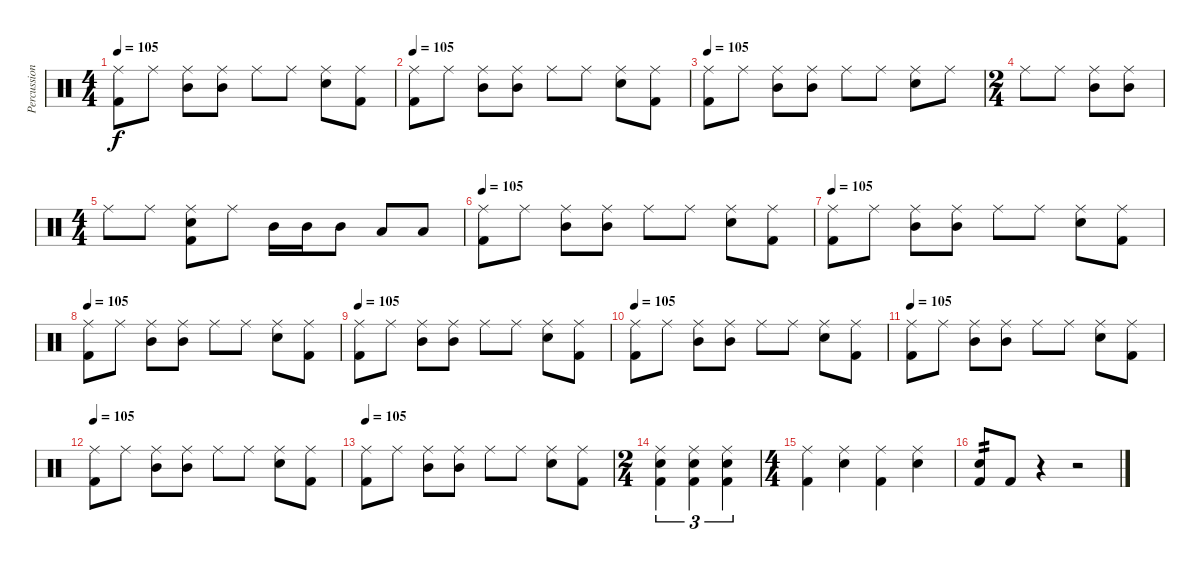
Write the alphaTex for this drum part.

\track ("Percussion" "Percussion") {instrument percussion}
\staff {score}
\articulation defaults
\ts (4 4)
\tempo 105
\clef neutral
\ks c
("Ride (middle)" "Kick (hit) 2").8{dy f} "Ride (middle)".8 ("Ride (middle)" "Mid Tom (hit)").8 ("Ride (middle)" "Mid Tom (hit)").8 "Ride (middle)".8 "Ride (middle)".8 ("Ride (middle)" "Snare (hit) 2").8 ("Ride (middle)" "Kick (hit) 2").8 |
\tempo 105
("Ride (middle)" "Kick (hit) 2").8 "Ride (middle)".8 ("Ride (middle)" "Mid Tom (hit)").8 ("Ride (middle)" "Mid Tom (hit)").8 "Ride (middle)".8 "Ride (middle)".8 ("Ride (middle)" "Snare (hit) 2").8 ("Ride (middle)" "Kick (hit) 2").8 |
\tempo 105
("Ride (middle)" "Kick (hit) 2").8 "Ride (middle)".8 ("Ride (middle)" "Mid Tom (hit)").8 ("Ride (middle)" "Mid Tom (hit)").8 "Ride (middle)".8 "Ride (middle)".8 ("Ride (middle)" "Snare (hit) 2").8 "Ride (middle)".8 |
\ts (2 4)
"Ride (middle)".8 "Ride (middle)".8 ("Ride (middle)" "Mid Tom (hit)").8 ("Ride (middle)" "Mid Tom (hit)").8 |
\ts (4 4)
"Ride (middle)".8 "Ride (middle)".8 ("Ride (middle)" "Snare (hit) 2" "Kick (hit) 2").8 "Ride (middle)".8 "Mid Tom (hit)".16 "Mid Tom (hit)".16 "Mid Tom (hit)".8 "Low Floor Tom (hit)".8 "Low Floor Tom (hit)".8 |
\tempo 105
("Ride (middle)" "Kick (hit) 2").8 "Ride (middle)".8 ("Ride (middle)" "Mid Tom (hit)").8 ("Ride (middle)" "Mid Tom (hit)").8 "Ride (middle)".8 "Ride (middle)".8 ("Ride (middle)" "Snare (hit) 2").8 ("Ride (middle)" "Kick (hit) 2").8 |
\tempo 105
("Ride (middle)" "Kick (hit) 2").8 "Ride (middle)".8 ("Ride (middle)" "Mid Tom (hit)").8 ("Ride (middle)" "Mid Tom (hit)").8 "Ride (middle)".8 "Ride (middle)".8 ("Ride (middle)" "Snare (hit) 2").8 ("Ride (middle)" "Kick (hit) 2").8 |
\tempo 105
("Ride (middle)" "Kick (hit) 2").8 "Ride (middle)".8 ("Ride (middle)" "Mid Tom (hit)").8 ("Ride (middle)" "Mid Tom (hit)").8 "Ride (middle)".8 "Ride (middle)".8 ("Ride (middle)" "Snare (hit) 2").8 ("Ride (middle)" "Kick (hit) 2").8 |
\tempo 105
("Ride (middle)" "Kick (hit) 2").8 "Ride (middle)".8 ("Ride (middle)" "Mid Tom (hit)").8 ("Ride (middle)" "Mid Tom (hit)").8 "Ride (middle)".8 "Ride (middle)".8 ("Ride (middle)" "Snare (hit) 2").8 ("Ride (middle)" "Kick (hit) 2").8 |
\tempo 105
("Ride (middle)" "Kick (hit) 2").8 "Ride (middle)".8 ("Ride (middle)" "Mid Tom (hit)").8 ("Ride (middle)" "Mid Tom (hit)").8 "Ride (middle)".8 "Ride (middle)".8 ("Ride (middle)" "Snare (hit) 2").8 ("Ride (middle)" "Kick (hit) 2").8 |
\tempo 105
("Ride (middle)" "Kick (hit) 2").8 "Ride (middle)".8 ("Ride (middle)" "Mid Tom (hit)").8 ("Ride (middle)" "Mid Tom (hit)").8 "Ride (middle)".8 "Ride (middle)".8 ("Ride (middle)" "Snare (hit) 2").8 ("Ride (middle)" "Kick (hit) 2").8 |
\tempo 105
("Ride (middle)" "Kick (hit) 2").8 "Ride (middle)".8 ("Ride (middle)" "Mid Tom (hit)").8 ("Ride (middle)" "Mid Tom (hit)").8 "Ride (middle)".8 "Ride (middle)".8 ("Ride (middle)" "Snare (hit) 2").8 ("Ride (middle)" "Kick (hit) 2").8 |
\tempo 105
("Ride (middle)" "Kick (hit) 2").8 "Ride (middle)".8 ("Ride (middle)" "Mid Tom (hit)").8 ("Ride (middle)" "Mid Tom (hit)").8 "Ride (middle)".8 "Ride (middle)".8 ("Ride (middle)" "Snare (hit) 2").8 ("Ride (middle)" "Kick (hit) 2").8 |
\ts (2 4)
("Ride (middle)" "Snare (hit) 2" "Kick (hit) 2").4{tu (3 2)} ("Ride (middle)" "Snare (hit) 2" "Kick (hit) 2").4{tu (3 2)} ("Ride (middle)" "Snare (hit) 2" "Kick (hit) 2").4{tu (3 2)} |
\ts (4 4)
("Ride (middle)" "Kick (hit) 2").4 ("Ride (middle)" "Snare (hit) 2").4 ("Ride (middle)" "Kick (hit) 2").4 ("Ride (middle)" "Snare (hit) 2").4 |
("Snare (hit) 2" "Kick (hit) 2").8{tp 2} "Kick (hit) 2".8 r.4 r.2
